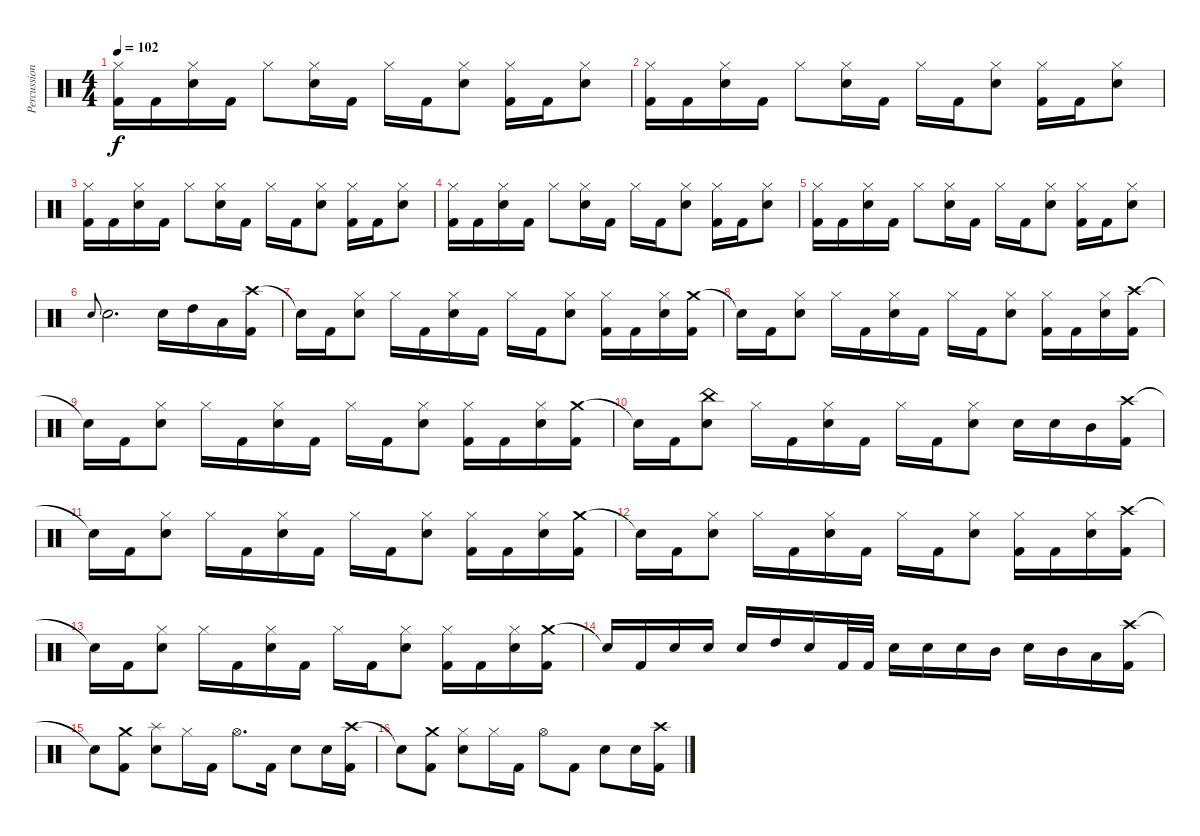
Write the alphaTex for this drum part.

\track ("Percussion" "Percussion") {instrument percussion}
\staff {score}
\articulation defaults
\ts (4 4)
\tempo 102
\clef neutral
\ks c
("Hi-Hat (closed)" "Kick (hit) 2").16{dy f} "Kick (hit) 2".16 ("Hi-Hat (closed)" "Snare (hit) 2").16 "Kick (hit) 2".16 "Hi-Hat (closed)".8 ("Hi-Hat (closed)" "Snare (hit) 2").16 "Kick (hit) 2".16 "Hi-Hat (closed)".16 "Kick (hit) 2".16 ("Hi-Hat (closed)" "Snare (hit) 2").8 ("Hi-Hat (closed)" "Kick (hit) 2").16 "Kick (hit) 2".16 ("Hi-Hat (closed)" "Snare (hit) 2").8 |
("Hi-Hat (closed)" "Kick (hit) 2").16 "Kick (hit) 2".16 ("Hi-Hat (closed)" "Snare (hit) 2").16 "Kick (hit) 2".16 "Hi-Hat (closed)".8 ("Hi-Hat (closed)" "Snare (hit) 2").16 "Kick (hit) 2".16 "Hi-Hat (closed)".16 "Kick (hit) 2".16 ("Hi-Hat (closed)" "Snare (hit) 2").8 ("Hi-Hat (closed)" "Kick (hit) 2").16 "Kick (hit) 2".16 ("Hi-Hat (closed)" "Snare (hit) 2").8 |
("Hi-Hat (closed)" "Kick (hit) 2").16 "Kick (hit) 2".16 ("Hi-Hat (closed)" "Snare (hit) 2").16 "Kick (hit) 2".16 "Hi-Hat (closed)".8 ("Hi-Hat (closed)" "Snare (hit) 2").16 "Kick (hit) 2".16 "Hi-Hat (closed)".16 "Kick (hit) 2".16 ("Hi-Hat (closed)" "Snare (hit) 2").8 ("Hi-Hat (closed)" "Kick (hit) 2").16 "Kick (hit) 2".16 ("Hi-Hat (closed)" "Snare (hit) 2").8 |
("Hi-Hat (closed)" "Kick (hit) 2").16 "Kick (hit) 2".16 ("Hi-Hat (closed)" "Snare (hit) 2").16 "Kick (hit) 2".16 "Hi-Hat (closed)".8 ("Hi-Hat (closed)" "Snare (hit) 2").16 "Kick (hit) 2".16 "Hi-Hat (closed)".16 "Kick (hit) 2".16 ("Hi-Hat (closed)" "Snare (hit) 2").8 ("Hi-Hat (closed)" "Kick (hit) 2").16 "Kick (hit) 2".16 ("Hi-Hat (closed)" "Snare (hit) 2").8 |
("Hi-Hat (closed)" "Kick (hit) 2").16 "Kick (hit) 2".16 ("Hi-Hat (closed)" "Snare (hit) 2").16 "Kick (hit) 2".16 "Hi-Hat (closed)".8 ("Hi-Hat (closed)" "Snare (hit) 2").16 "Kick (hit) 2".16 "Hi-Hat (closed)".16 "Kick (hit) 2".16 ("Hi-Hat (closed)" "Snare (hit) 2").8 ("Hi-Hat (closed)" "Kick (hit) 2").16 "Kick (hit) 2".16 ("Hi-Hat (closed)" "Snare (hit) 2").8 |
"Snare (hit) 2".8{gr onbeat} "Snare (hit) 2".2{d} "Snare (hit) 2".16 "High Tom (hit)".16 "Low Tom (hit)".16 ("Crash high (hit)" "Kick (hit) 2").16 |
"Snare (hit)"{t}.16 "Kick (hit) 2".16 ("Hi-Hat (closed)" "Snare (hit) 2").8 "Hi-Hat (closed)".16 "Kick (hit) 2".16 ("Hi-Hat (closed)" "Snare (hit) 2").16 "Kick (hit) 2".16 "Hi-Hat (closed)".16 "Kick (hit) 2".16 ("Hi-Hat (closed)" "Snare (hit) 2").8 ("Hi-Hat (closed)" "Kick (hit) 2").16 "Kick (hit) 2".16 ("Hi-Hat (closed)" "Snare (hit) 2").16 ("Crash medium (hit)" "Kick (hit) 2").16 |
"Snare (hit)"{t}.16 "Kick (hit) 2".16 ("Hi-Hat (closed)" "Snare (hit) 2").8 "Hi-Hat (closed)".16 "Kick (hit) 2".16 ("Hi-Hat (closed)" "Snare (hit) 2").16 "Kick (hit) 2".16 "Hi-Hat (closed)".16 "Kick (hit) 2".16 ("Hi-Hat (closed)" "Snare (hit) 2").8 ("Hi-Hat (closed)" "Kick (hit) 2").16 "Kick (hit) 2".16 ("Hi-Hat (closed)" "Snare (hit) 2").16 ("Crash high (hit)" "Kick (hit) 2").16 |
"Snare (hit)"{t}.16 "Kick (hit) 2".16 ("Hi-Hat (closed)" "Snare (hit) 2").8 "Hi-Hat (closed)".16 "Kick (hit) 2".16 ("Hi-Hat (closed)" "Snare (hit) 2").16 "Kick (hit) 2".16 "Hi-Hat (closed)".16 "Kick (hit) 2".16 ("Hi-Hat (closed)" "Snare (hit) 2").8 ("Hi-Hat (closed)" "Kick (hit) 2").16 "Kick (hit) 2".16 ("Hi-Hat (closed)" "Snare (hit) 2").16 ("Crash medium (hit)" "Kick (hit) 2").16 |
"Snare (hit)"{t}.16 "Kick (hit) 2".16 ("China (hit)" "Snare (hit) 2").8 "Hi-Hat (closed)".16 "Kick (hit) 2".16 ("Hi-Hat (closed)" "Snare (hit) 2").16 "Kick (hit) 2".16 "Hi-Hat (closed)".16 "Kick (hit) 2".16 ("Hi-Hat (closed)" "Snare (hit) 2").8 "Snare (hit) 2".16 "Snare (hit) 2".16 "Mid Tom (hit)".16 ("Crash high (hit)" "Kick (hit) 2").16 |
"Snare (hit)"{t}.16 "Kick (hit) 2".16 ("Hi-Hat (closed)" "Snare (hit) 2").8 "Hi-Hat (closed)".16 "Kick (hit) 2".16 ("Hi-Hat (closed)" "Snare (hit) 2").16 "Kick (hit) 2".16 "Hi-Hat (closed)".16 "Kick (hit) 2".16 ("Hi-Hat (closed)" "Snare (hit) 2").8 ("Hi-Hat (closed)" "Kick (hit) 2").16 "Kick (hit) 2".16 ("Hi-Hat (closed)" "Snare (hit) 2").16 ("Crash medium (hit)" "Kick (hit) 2").16 |
"Snare (hit)"{t}.16 "Kick (hit) 2".16 ("Hi-Hat (closed)" "Snare (hit) 2").8 "Hi-Hat (closed)".16 "Kick (hit) 2".16 ("Hi-Hat (closed)" "Snare (hit) 2").16 "Kick (hit) 2".16 "Hi-Hat (closed)".16 "Kick (hit) 2".16 ("Hi-Hat (closed)" "Snare (hit) 2").8 ("Hi-Hat (closed)" "Kick (hit) 2").16 "Kick (hit) 2".16 ("Hi-Hat (closed)" "Snare (hit) 2").16 ("Crash high (hit)" "Kick (hit) 2").16 |
"Snare (hit)"{t}.16 "Kick (hit) 2".16 ("Hi-Hat (closed)" "Snare (hit) 2").8 "Hi-Hat (closed)".16 "Kick (hit) 2".16 ("Hi-Hat (closed)" "Snare (hit) 2").16 "Kick (hit) 2".16 "Hi-Hat (closed)".16 "Kick (hit) 2".16 ("Hi-Hat (closed)" "Snare (hit) 2").8 ("Hi-Hat (closed)" "Kick (hit) 2").16 "Kick (hit) 2".16 ("Hi-Hat (closed)" "Snare (hit) 2").16 ("Crash medium (hit)" "Kick (hit) 2").16 |
"Snare (hit)"{t}.16 "Kick (hit) 2".16 "Snare (hit) 2".16 "Snare (hit) 2".16 "Snare (hit) 2".16 "High Tom (hit)".16 "Snare (hit) 2".16 "Kick (hit) 2".32 "Kick (hit) 2".32 "Snare (hit) 2".16 "Snare (hit) 2".16 "Snare (hit) 2".16 "Mid Tom (hit)".16 "Snare (hit) 2".16 "Mid Tom (hit)".16 "Low Tom (hit)".16 ("Crash high (hit)" "Kick (hit) 2").16 |
"Snare (hit)"{t}.8 ("Crash medium (hit)" "Kick (hit) 2").8 ("Splash (hit)" "Snare (hit) 2").8 "Hi-Hat (closed)".16 "Kick (hit) 2".16 "Hi-Hat (open)".8{d} "Kick (hit) 2".16 "Snare (hit) 2".8 "Snare (hit) 2".16 ("Crash high (hit)" "Kick (hit) 2").16 |
"Snare (hit)"{t}.8 ("Crash medium (hit)" "Kick (hit) 2").8 ("Hi-Hat (closed)" "Snare (hit) 2").8 "Hi-Hat (closed)".16 "Kick (hit) 2".16 "Hi-Hat (open)".8 "Kick (hit) 2".8 "Snare (hit) 2".8 "Snare (hit) 2".16 ("Crash high (hit)" "Kick (hit) 2").16
